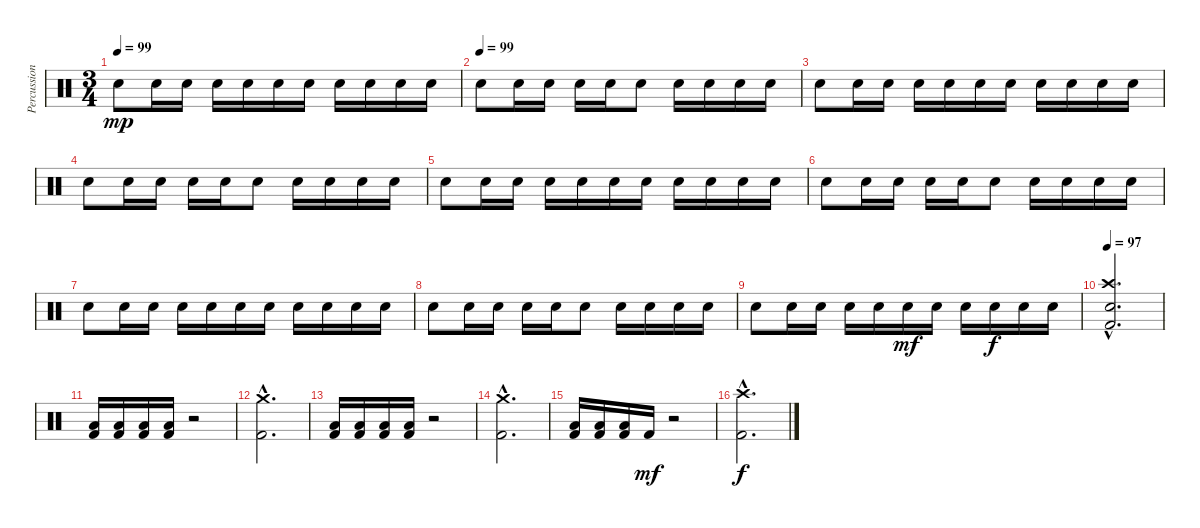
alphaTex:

\track ("Percussion" "Percussion") {instrument percussion}
\staff {score}
\articulation defaults
\ts (3 4)
\tempo 99
\clef neutral
\ks c "Electric Snare (hit)".8{dy mp} "Electric Snare (hit)".16 "Electric Snare (hit)".16 "Electric Snare (hit)".16 "Electric Snare (hit)".16 "Electric Snare (hit)".16 "Electric Snare (hit)".16 "Electric Snare (hit)".16 "Electric Snare (hit)".16 "Electric Snare (hit)".16 "Electric Snare (hit)".16
|
\tempo (99)
"Electric Snare (hit)".8 "Electric Snare (hit)".16 "Electric Snare (hit)".16 "Electric Snare (hit)".16 "Electric Snare (hit)".16 "Electric Snare (hit)".8 "Electric Snare (hit)".16 "Electric Snare (hit)".16 "Electric Snare (hit)".16 "Electric Snare (hit)".16 |
"Electric Snare (hit)".8 "Electric Snare (hit)".16 "Electric Snare (hit)".16 "Electric Snare (hit)".16 "Electric Snare (hit)".16 "Electric Snare (hit)".16 "Electric Snare (hit)".16 "Electric Snare (hit)".16 "Electric Snare (hit)".16 "Electric Snare (hit)".16 "Electric Snare (hit)".16 |
"Electric Snare (hit)".8 "Electric Snare (hit)".16 "Electric Snare (hit)".16 "Electric Snare (hit)".16 "Electric Snare (hit)".16 "Electric Snare (hit)".8 "Electric Snare (hit)".16 "Electric Snare (hit)".16 "Electric Snare (hit)".16 "Electric Snare (hit)".16 |
"Electric Snare (hit)".8 "Electric Snare (hit)".16 "Electric Snare (hit)".16 "Electric Snare (hit)".16 "Electric Snare (hit)".16 "Electric Snare (hit)".16 "Electric Snare (hit)".16 "Electric Snare (hit)".16 "Electric Snare (hit)".16 "Electric Snare (hit)".16 "Electric Snare (hit)".16 |
"Electric Snare (hit)".8 "Electric Snare (hit)".16 "Electric Snare (hit)".16 "Electric Snare (hit)".16 "Electric Snare (hit)".16 "Electric Snare (hit)".8 "Electric Snare (hit)".16 "Electric Snare (hit)".16 "Electric Snare (hit)".16 "Electric Snare (hit)".16 |
"Electric Snare (hit)".8 "Electric Snare (hit)".16 "Electric Snare (hit)".16 "Electric Snare (hit)".16 "Electric Snare (hit)".16 "Electric Snare (hit)".16 "Electric Snare (hit)".16 "Electric Snare (hit)".16 "Electric Snare (hit)".16 "Electric Snare (hit)".16 "Electric Snare (hit)".16 |
"Electric Snare (hit)".8 "Electric Snare (hit)".16 "Electric Snare (hit)".16 "Electric Snare (hit)".16 "Electric Snare (hit)".16 "Electric Snare (hit)".8 "Electric Snare (hit)".16 "Electric Snare (hit)".16 "Electric Snare (hit)".16 "Electric Snare (hit)".16 |
"Electric Snare (hit)".8 "Electric Snare (hit)".16 "Electric Snare (hit)".16 "Electric Snare (hit)".16 "Electric Snare (hit)".16 "Electric Snare (hit)".16{dy mf} "Electric Snare (hit)".16 "Electric Snare (hit)".16 "Electric Snare (hit)".16{dy f} "Electric Snare (hit)".16 "Electric Snare (hit)".16 |
\tempo 97
("Crash high (hit)"{hac} "Electric Snare (hit)"{hac} "Kick (hit) 2"{hac}).2{d} |
("Low Floor Tom (hit)" "Kick (hit) 2").16 ("Low Floor Tom (hit)" "Kick (hit) 2").16 ("Low Floor Tom (hit)" "Kick (hit) 2").16 ("Low Floor Tom (hit)" "Kick (hit) 2").16 r.2 |
("Crash medium (hit)"{hac} "Kick (hit) 2"{hac}).2{d} |
("Low Floor Tom (hit)" "Kick (hit) 2").16 ("Low Floor Tom (hit)" "Kick (hit) 2").16 ("Low Floor Tom (hit)" "Kick (hit) 2").16 ("Low Floor Tom (hit)" "Kick (hit) 2").16 r.2 |
("Crash medium (hit)"{hac} "Kick (hit) 2"{hac}).2{d} |
("Low Floor Tom (hit)" "Kick (hit) 2").16 ("Low Floor Tom (hit)" "Kick (hit) 2").16 ("Low Floor Tom (hit)" "Kick (hit) 2").16 "Kick (hit) 2".16{dy mf} r.2 |
("Crash high (hit)"{hac} "Kick (hit) 2"{hac}).2{d dy f}
